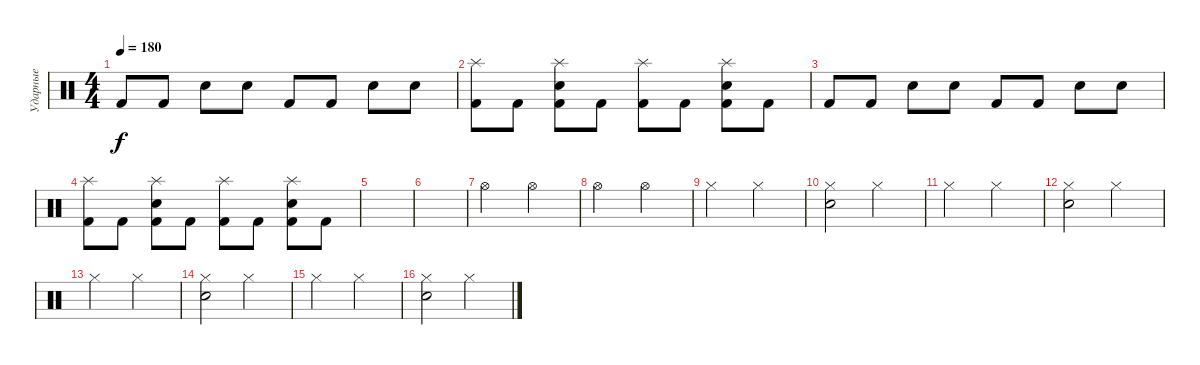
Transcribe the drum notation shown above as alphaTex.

\track ("Ударные" "Ударные") {instrument percussion}
\staff {score}
\articulation defaults
\ts (4 4)
\tempo 180
\clef neutral
\ks c "Kick (hit) 2".8{dy f} "Kick (hit) 2".8 "Electric Snare (hit)".8 "Electric Snare (hit)".8 "Kick (hit) 2".8 "Kick (hit) 2".8 "Electric Snare (hit)".8 "Electric Snare (hit)".8
|
("Splash (hit)" "Kick (hit) 2").8 "Kick (hit) 2".8 ("Splash (hit)" "Kick (hit) 2" "Electric Snare (hit)").8 "Kick (hit) 2".8 ("Splash (hit)" "Kick (hit) 2").8 "Kick (hit) 2".8 ("Splash (hit)" "Kick (hit) 2" "Electric Snare (hit)").8 "Kick (hit) 2".8 |
"Kick (hit) 2".8 "Kick (hit) 2".8 "Electric Snare (hit)".8 "Electric Snare (hit)".8 "Kick (hit) 2".8 "Kick (hit) 2".8 "Electric Snare (hit)".8 "Electric Snare (hit)".8 |
("Splash (hit)" "Kick (hit) 2").8 "Kick (hit) 2".8 ("Splash (hit)" "Kick (hit) 2" "Electric Snare (hit)").8 "Kick (hit) 2".8 ("Splash (hit)" "Kick (hit) 2").8 "Kick (hit) 2".8 ("Splash (hit)" "Kick (hit) 2" "Electric Snare (hit)").8 "Kick (hit) 2".8 |
|
|
"Hi-Hat (open)".2 "Hi-Hat (open)".2 |
"Hi-Hat (open)".2 "Hi-Hat (open)".2 |
"Hi-Hat (closed)".2 "Hi-Hat (closed)".2 |
("Hi-Hat (closed)" "Electric Snare (hit)").2 "Hi-Hat (closed)".2 |
"Hi-Hat (closed)".2 "Hi-Hat (closed)".2 |
("Hi-Hat (closed)" "Electric Snare (hit)").2 "Hi-Hat (closed)".2 |
"Hi-Hat (closed)".2 "Hi-Hat (closed)".2 |
("Hi-Hat (closed)" "Electric Snare (hit)").2 "Hi-Hat (closed)".2 |
"Hi-Hat (closed)".2 "Hi-Hat (closed)".2 |
("Hi-Hat (closed)" "Electric Snare (hit)").2 "Hi-Hat (closed)".2
